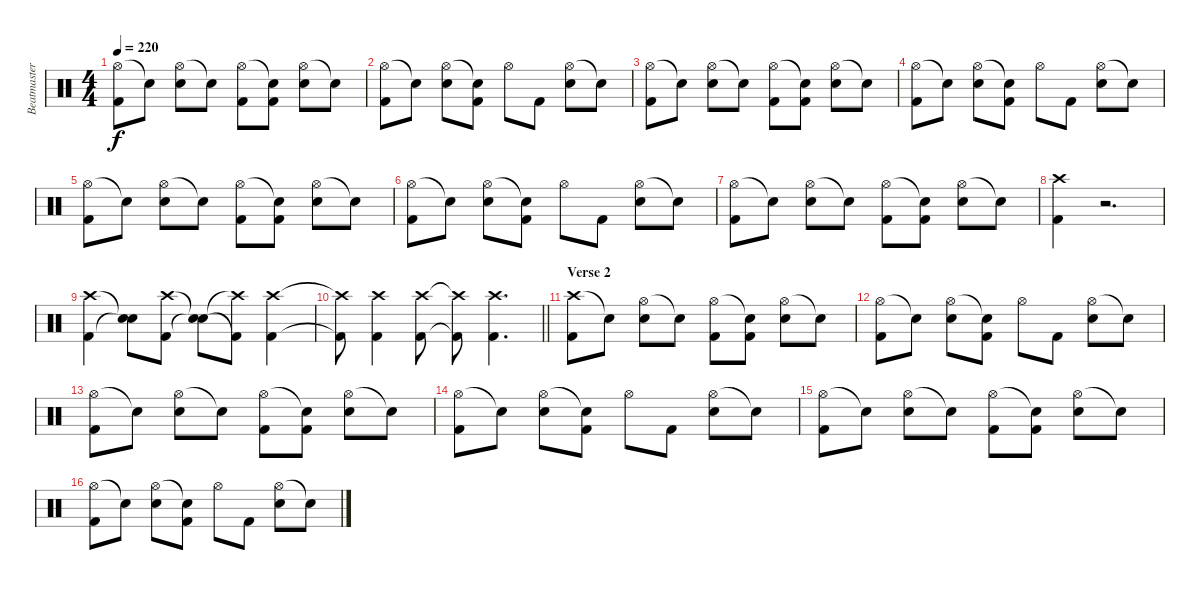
\track ("Beatmaster V" "Beatmaster") {instrument percussion}
\staff {score}
\articulation defaults
\ts (4 4)
\tempo 220
\clef neutral
\ks c
("Hi-Hat (open)" "Kick (hit) 2").8{dy f} "Snare (hit)"{t}.8 ("Hi-Hat (open)" "Snare (hit) 2").8 "Snare (hit)"{t}.8 ("Hi-Hat (open)" "Kick (hit) 2").8 ("Snare (hit)"{t} "Kick (hit) 2").8 ("Hi-Hat (open)" "Snare (hit) 2").8 "Snare (hit)"{t}.8 |
("Hi-Hat (open)" "Kick (hit) 2").8 "Snare (hit)"{t}.8 ("Hi-Hat (open)" "Snare (hit) 2").8 ("Snare (hit)"{t} "Kick (hit) 2").8 "Hi-Hat (open)".8 "Kick (hit) 2".8 ("Hi-Hat (open)" "Snare (hit) 2").8 "Snare (hit)"{t}.8 |
("Hi-Hat (open)" "Kick (hit) 2").8 "Snare (hit)"{t}.8 ("Hi-Hat (open)" "Snare (hit) 2").8 "Snare (hit)"{t}.8 ("Hi-Hat (open)" "Kick (hit) 2").8 ("Snare (hit)"{t} "Kick (hit) 2").8 ("Hi-Hat (open)" "Snare (hit) 2").8 "Snare (hit)"{t}.8 |
("Hi-Hat (open)" "Kick (hit) 2").8 "Snare (hit)"{t}.8 ("Hi-Hat (open)" "Snare (hit) 2").8 ("Snare (hit)"{t} "Kick (hit) 2").8 "Hi-Hat (open)".8 "Kick (hit) 2".8 ("Hi-Hat (open)" "Snare (hit) 2").8 "Snare (hit)"{t}.8 |
("Hi-Hat (open)" "Kick (hit) 2").8 "Snare (hit)"{t}.8 ("Hi-Hat (open)" "Snare (hit) 2").8 "Snare (hit)"{t}.8 ("Hi-Hat (open)" "Kick (hit) 2").8 ("Snare (hit)"{t} "Kick (hit) 2").8 ("Hi-Hat (open)" "Snare (hit) 2").8 "Snare (hit)"{t}.8 |
("Hi-Hat (open)" "Kick (hit) 2").8 "Snare (hit)"{t}.8 ("Hi-Hat (open)" "Snare (hit) 2").8 ("Snare (hit)"{t} "Kick (hit) 2").8 "Hi-Hat (open)".8 "Kick (hit) 2".8 ("Hi-Hat (open)" "Snare (hit) 2").8 "Snare (hit)"{t}.8 |
("Hi-Hat (open)" "Kick (hit) 2").8 "Snare (hit)"{t}.8 ("Hi-Hat (open)" "Snare (hit) 2").8 "Snare (hit)"{t}.8 ("Hi-Hat (open)" "Kick (hit) 2").8 ("Snare (hit)"{t} "Kick (hit) 2").8 ("Hi-Hat (open)" "Snare (hit) 2").8 "Snare (hit)"{t}.8 |
("Crash high (hit)" "Kick (hit) 2").4 r.2{d} |
("Crash high (hit)" "Kick (hit) 2").4 ("Snare (hit)"{t} "Snare (hit)"{t}).8 ("Crash high (hit)" "Kick (hit) 2").8 ("Snare (hit)"{t} "Snare (hit)"{t}).8 ("Crash high (hit)"{t} "Kick (hit) 2"{t}).8 ("Crash high (hit)" "Kick (hit) 2").4 |
\barLineRight lightlight
("Crash high (hit)"{t} "Kick (hit) 2"{t}).8 ("Crash high (hit)" "Kick (hit) 2").4 ("Crash high (hit)" "Kick (hit) 2").8 ("Crash high (hit)"{t} "Kick (hit) 2"{t}).8 ("Crash high (hit)" "Kick (hit) 2").4{d} |
\section ("" "Verse 2")
("Crash high (hit)" "Kick (hit) 2").8 "Snare (hit)"{t}.8 ("Hi-Hat (open)" "Snare (hit) 2").8 "Snare (hit)"{t}.8 ("Hi-Hat (open)" "Kick (hit) 2").8 ("Snare (hit)"{t} "Kick (hit) 2").8 ("Hi-Hat (open)" "Snare (hit) 2").8 "Snare (hit)"{t}.8 |
("Hi-Hat (open)" "Kick (hit) 2").8 "Snare (hit)"{t}.8 ("Hi-Hat (open)" "Snare (hit) 2").8 ("Snare (hit)"{t} "Kick (hit) 2").8 "Hi-Hat (open)".8 "Kick (hit) 2".8 ("Hi-Hat (open)" "Snare (hit) 2").8 "Snare (hit)"{t}.8 |
("Hi-Hat (open)" "Kick (hit) 2").8 "Snare (hit)"{t}.8 ("Hi-Hat (open)" "Snare (hit) 2").8 "Snare (hit)"{t}.8 ("Hi-Hat (open)" "Kick (hit) 2").8 ("Snare (hit)"{t} "Kick (hit) 2").8 ("Hi-Hat (open)" "Snare (hit) 2").8 "Snare (hit)"{t}.8 |
("Hi-Hat (open)" "Kick (hit) 2").8 "Snare (hit)"{t}.8 ("Hi-Hat (open)" "Snare (hit) 2").8 ("Snare (hit)"{t} "Kick (hit) 2").8 "Hi-Hat (open)".8 "Kick (hit) 2".8 ("Hi-Hat (open)" "Snare (hit) 2").8 "Snare (hit)"{t}.8 |
("Hi-Hat (open)" "Kick (hit) 2").8 "Snare (hit)"{t}.8 ("Hi-Hat (open)" "Snare (hit) 2").8 "Snare (hit)"{t}.8 ("Hi-Hat (open)" "Kick (hit) 2").8 ("Snare (hit)"{t} "Kick (hit) 2").8 ("Hi-Hat (open)" "Snare (hit) 2").8 "Snare (hit)"{t}.8 |
("Hi-Hat (open)" "Kick (hit) 2").8 "Snare (hit)"{t}.8 ("Hi-Hat (open)" "Snare (hit) 2").8 ("Snare (hit)"{t} "Kick (hit) 2").8 "Hi-Hat (open)".8 "Kick (hit) 2".8 ("Hi-Hat (open)" "Snare (hit) 2").8 "Snare (hit)"{t}.8
